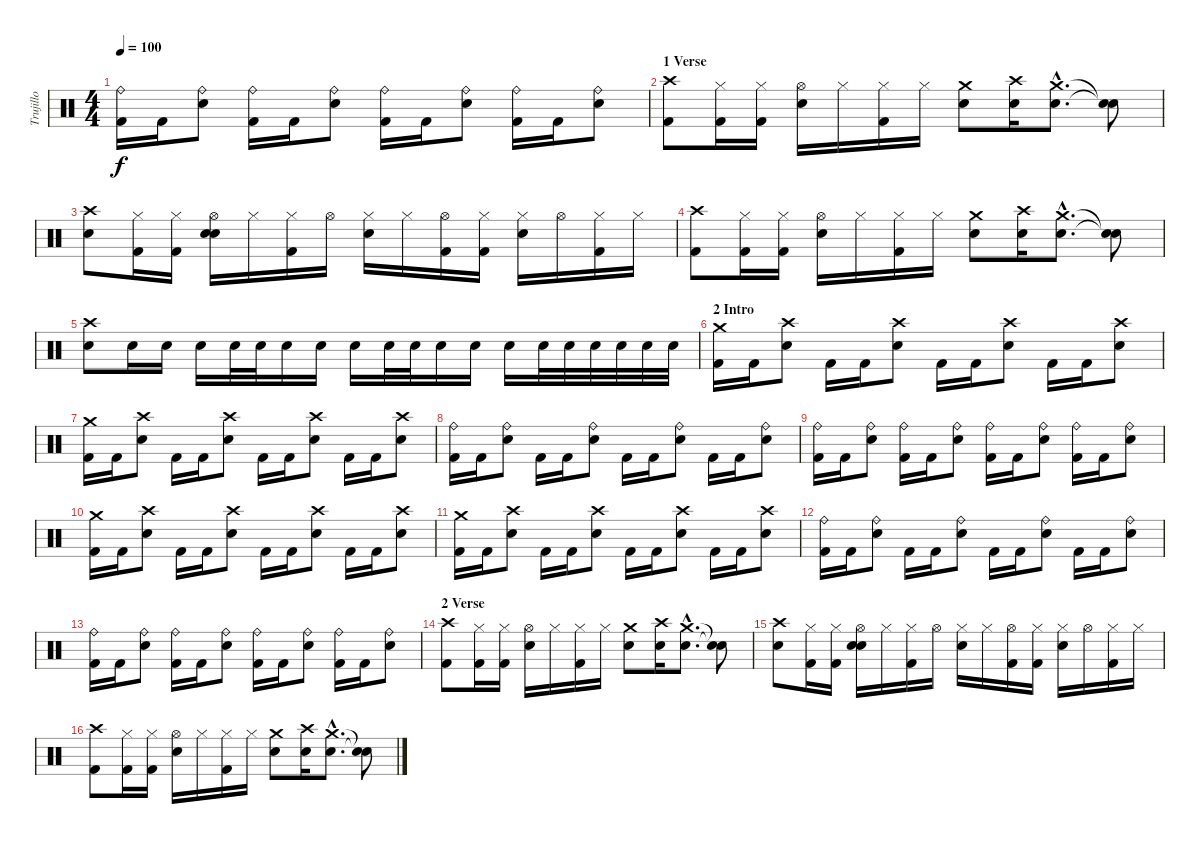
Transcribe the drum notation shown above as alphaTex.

\track ("Trujillo" "Trujillo") {instrument percussion}
\staff {score}
\articulation defaults
\ts (4 4)
\tempo 100
\clef neutral
\ks c
("Ride (bell)" "Kick (hit) 2").16{dy f} "Kick (hit) 2".16 ("Ride (bell)" "Electric Snare (hit)").8 ("Ride (bell)" "Kick (hit) 2").16 "Kick (hit) 2".16 ("Ride (bell)" "Electric Snare (hit)").8 ("Ride (bell)" "Kick (hit) 2").16 "Kick (hit) 2".16 ("Ride (bell)" "Electric Snare (hit)").8 ("Ride (bell)" "Kick (hit) 2").16 "Kick (hit) 2".16 ("Ride (bell)" "Electric Snare (hit)").8 |
\section ("" "1 Verse")
("Crash high (hit)" "Kick (hit) 2").8 ("Hi-Hat (closed)" "Kick (hit) 2").16 ("Hi-Hat (closed)" "Kick (hit) 2").16 ("Hi-Hat (open)" "Electric Snare (hit)").16 "Hi-Hat (closed)".16 ("Hi-Hat (closed)" "Kick (hit) 2").16 "Hi-Hat (closed)".16 ("Crash medium (hit)" "Electric Snare (hit)").8 ("Crash high (hit)" "Snare (hit) 2").16 ("Crash medium (hit)"{hac} "Electric Snare (hit)"{hac}).8{d} ("Snare (hit)"{t} "Snare (hit)"{t}).8 |
("Crash high (hit)" "Electric Snare (hit)").8 ("Hi-Hat (closed)" "Kick (hit) 2").16 ("Hi-Hat (closed)" "Kick (hit) 2").16 ("Hi-Hat (open)" "Electric Snare (hit)" "Electric Snare (hit)").16 "Hi-Hat (closed)".16 ("Hi-Hat (closed)" "Kick (hit) 2").16 "Hi-Hat (open)".16 ("Hi-Hat (closed)" "Electric Snare (hit)").16 "Hi-Hat (closed)".16 ("Hi-Hat (open)" "Kick (hit) 2").16 ("Hi-Hat (closed)" "Kick (hit) 2").16 ("Hi-Hat (closed)" "Electric Snare (hit)").16 "Hi-Hat (open)".16 ("Hi-Hat (closed)" "Kick (hit) 2").16 "Hi-Hat (closed)".16 |
("Crash high (hit)" "Kick (hit) 2").8 ("Hi-Hat (closed)" "Kick (hit) 2").16 ("Hi-Hat (closed)" "Kick (hit) 2").16 ("Hi-Hat (open)" "Electric Snare (hit)").16 "Hi-Hat (closed)".16 ("Hi-Hat (closed)" "Kick (hit) 2").16 "Hi-Hat (closed)".16 ("Crash medium (hit)" "Electric Snare (hit)").8 ("Crash high (hit)" "Snare (hit) 2").16 ("Crash medium (hit)"{hac} "Electric Snare (hit)"{hac}).8{d} ("Snare (hit)"{t} "Snare (hit)"{t}).8 |
("Crash high (hit)" "Electric Snare (hit)").8 "Electric Snare (hit)".16 "Electric Snare (hit)".16 "Electric Snare (hit)".16 "Electric Snare (hit)".32 "Electric Snare (hit)".32 "Electric Snare (hit)".16 "Electric Snare (hit)".16 "Electric Snare (hit)".16 "Electric Snare (hit)".32 "Electric Snare (hit)".32 "Electric Snare (hit)".16 "Electric Snare (hit)".16 "Electric Snare (hit)".16 "Electric Snare (hit)".32 "Electric Snare (hit)".32 "Electric Snare (hit)".32 "Electric Snare (hit)".32 "Electric Snare (hit)".32 "Electric Snare (hit)".32 |
\section ("" "2 Intro")
("Crash medium (hit)" "Kick (hit) 2").16 "Kick (hit) 2".16 ("Crash high (hit)" "Electric Snare (hit)").8 "Kick (hit) 2".16 "Kick (hit) 2".16 ("Crash high (hit)" "Electric Snare (hit)").8 "Kick (hit) 2".16 "Kick (hit) 2".16 ("Crash high (hit)" "Electric Snare (hit)").8 "Kick (hit) 2".16 "Kick (hit) 2".16 ("Crash high (hit)" "Electric Snare (hit)").8 |
("Crash medium (hit)" "Kick (hit) 2").16 "Kick (hit) 2".16 ("Crash high (hit)" "Electric Snare (hit)").8 "Kick (hit) 2".16 "Kick (hit) 2".16 ("Crash high (hit)" "Electric Snare (hit)").8 "Kick (hit) 2".16 "Kick (hit) 2".16 ("Crash high (hit)" "Electric Snare (hit)").8 "Kick (hit) 2".16 "Kick (hit) 2".16 ("Crash high (hit)" "Electric Snare (hit)").8 |
("Ride (bell)" "Kick (hit) 2").16 "Kick (hit) 2".16 ("Ride (bell)" "Electric Snare (hit)").8 "Kick (hit) 2".16 "Kick (hit) 2".16 ("Ride (bell)" "Electric Snare (hit)").8 "Kick (hit) 2".16 "Kick (hit) 2".16 ("Ride (bell)" "Electric Snare (hit)").8 "Kick (hit) 2".16 "Kick (hit) 2".16 ("Ride (bell)" "Electric Snare (hit)").8 |
("Ride (bell)" "Kick (hit) 2").16 "Kick (hit) 2".16 ("Ride (bell)" "Electric Snare (hit)").8 ("Ride (bell)" "Kick (hit) 2").16 "Kick (hit) 2".16 ("Ride (bell)" "Electric Snare (hit)").8 ("Ride (bell)" "Kick (hit) 2").16 "Kick (hit) 2".16 ("Ride (bell)" "Electric Snare (hit)").8 ("Ride (bell)" "Kick (hit) 2").16 "Kick (hit) 2".16 ("Ride (bell)" "Electric Snare (hit)").8 |
("Crash medium (hit)" "Kick (hit) 2").16 "Kick (hit) 2".16 ("Crash high (hit)" "Electric Snare (hit)").8 "Kick (hit) 2".16 "Kick (hit) 2".16 ("Crash high (hit)" "Electric Snare (hit)").8 "Kick (hit) 2".16 "Kick (hit) 2".16 ("Crash high (hit)" "Electric Snare (hit)").8 "Kick (hit) 2".16 "Kick (hit) 2".16 ("Crash high (hit)" "Electric Snare (hit)").8 |
("Crash medium (hit)" "Kick (hit) 2").16 "Kick (hit) 2".16 ("Crash high (hit)" "Electric Snare (hit)").8 "Kick (hit) 2".16 "Kick (hit) 2".16 ("Crash high (hit)" "Electric Snare (hit)").8 "Kick (hit) 2".16 "Kick (hit) 2".16 ("Crash high (hit)" "Electric Snare (hit)").8 "Kick (hit) 2".16 "Kick (hit) 2".16 ("Crash high (hit)" "Electric Snare (hit)").8 |
("Ride (bell)" "Kick (hit) 2").16 "Kick (hit) 2".16 ("Ride (bell)" "Electric Snare (hit)").8 "Kick (hit) 2".16 "Kick (hit) 2".16 ("Ride (bell)" "Electric Snare (hit)").8 "Kick (hit) 2".16 "Kick (hit) 2".16 ("Ride (bell)" "Electric Snare (hit)").8 "Kick (hit) 2".16 "Kick (hit) 2".16 ("Ride (bell)" "Electric Snare (hit)").8 |
("Ride (bell)" "Kick (hit) 2").16 "Kick (hit) 2".16 ("Ride (bell)" "Electric Snare (hit)").8 ("Ride (bell)" "Kick (hit) 2").16 "Kick (hit) 2".16 ("Ride (bell)" "Electric Snare (hit)").8 ("Ride (bell)" "Kick (hit) 2").16 "Kick (hit) 2".16 ("Ride (bell)" "Electric Snare (hit)").8 ("Ride (bell)" "Kick (hit) 2").16 "Kick (hit) 2".16 ("Ride (bell)" "Electric Snare (hit)").8 |
\section ("" "2 Verse")
("Crash high (hit)" "Kick (hit) 2").8 ("Hi-Hat (closed)" "Kick (hit) 2").16 ("Hi-Hat (closed)" "Kick (hit) 2").16 ("Hi-Hat (open)" "Electric Snare (hit)").16 "Hi-Hat (closed)".16 ("Hi-Hat (closed)" "Kick (hit) 2").16 "Hi-Hat (closed)".16 ("Crash medium (hit)" "Electric Snare (hit)").8 ("Crash high (hit)" "Snare (hit) 2").16 ("Crash medium (hit)"{hac} "Electric Snare (hit)"{hac}).8{d} ("Snare (hit)"{t} "Snare (hit)"{t}).8 |
("Crash high (hit)" "Electric Snare (hit)").8 ("Hi-Hat (closed)" "Kick (hit) 2").16 ("Hi-Hat (closed)" "Kick (hit) 2").16 ("Hi-Hat (open)" "Electric Snare (hit)" "Electric Snare (hit)").16 "Hi-Hat (closed)".16 ("Hi-Hat (closed)" "Kick (hit) 2").16 "Hi-Hat (open)".16 ("Hi-Hat (closed)" "Electric Snare (hit)").16 "Hi-Hat (closed)".16 ("Hi-Hat (open)" "Kick (hit) 2").16 ("Hi-Hat (closed)" "Kick (hit) 2").16 ("Hi-Hat (closed)" "Electric Snare (hit)").16 "Hi-Hat (open)".16 ("Hi-Hat (closed)" "Kick (hit) 2").16 "Hi-Hat (closed)".16 |
("Crash high (hit)" "Kick (hit) 2").8 ("Hi-Hat (closed)" "Kick (hit) 2").16 ("Hi-Hat (closed)" "Kick (hit) 2").16 ("Hi-Hat (open)" "Electric Snare (hit)").16 "Hi-Hat (closed)".16 ("Hi-Hat (closed)" "Kick (hit) 2").16 "Hi-Hat (closed)".16 ("Crash medium (hit)" "Electric Snare (hit)").8 ("Crash high (hit)" "Snare (hit) 2").16 ("Crash medium (hit)"{hac} "Electric Snare (hit)"{hac}).8{d} ("Snare (hit)"{t} "Snare (hit)"{t}).8
